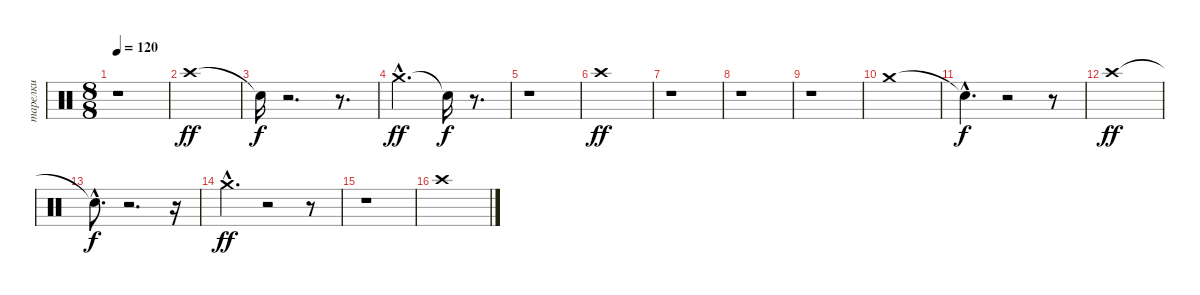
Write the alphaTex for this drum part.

\track ("тарелки" "тарелки") {instrument percussion}
\staff {score}
\articulation defaults
\ts (8 8)
\tempo 120
\clef neutral
\ks c
r.1{dy f} |
"Crash high (hit)".1{dy ff} |
"Snare (hit)"{t}.16{dy f} r.2{d} r.8{d} |
"Crash medium (hit)"{hac}.2{d dy ff} "Snare (hit)"{t}.16{dy f} r.8{d} |
r.1 |
"Crash high (hit)".1{dy ff} |
r.1 |
r.1 |
r.1 |
"Crash medium (hit)".1 |
"Snare (hit)"{hac t}.4{d dy f} r.2 r.8 |
"Crash high (hit)".1{dy ff} |
"Snare (hit)"{hac t}.8{d dy f} r.2{d} r.16 |
"Crash medium (hit)"{hac}.4{d dy ff} r.2 r.8 |
r.1 |
"Crash high (hit)".1
